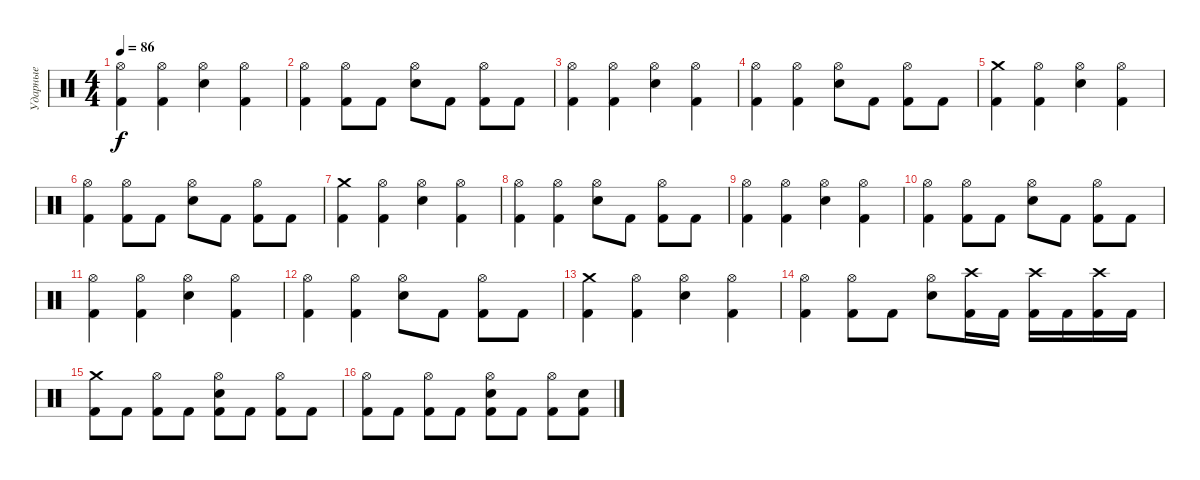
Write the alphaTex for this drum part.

\track ("Ударные" "Ударные") {instrument percussion}
\staff {score}
\articulation defaults
\ts (4 4)
\tempo 86
\clef neutral
\ks c
("Hi-Hat (open)" "Kick (hit) 2").4{dy f} ("Hi-Hat (open)" "Kick (hit) 2").4 ("Hi-Hat (open)" "Electric Snare (hit)").4 ("Hi-Hat (open)" "Kick (hit) 2").4 |
("Hi-Hat (open)" "Kick (hit) 2").4 ("Hi-Hat (open)" "Kick (hit) 2").8 "Kick (hit) 2".8 ("Hi-Hat (open)" "Electric Snare (hit)").8 "Kick (hit) 2".8 ("Hi-Hat (open)" "Kick (hit) 2").8 "Kick (hit) 2".8 |
("Hi-Hat (open)" "Kick (hit) 2").4 ("Hi-Hat (open)" "Kick (hit) 2").4 ("Hi-Hat (open)" "Electric Snare (hit)").4 ("Hi-Hat (open)" "Kick (hit) 2").4 |
("Hi-Hat (open)" "Kick (hit) 2").4 ("Hi-Hat (open)" "Kick (hit) 2").4 ("Hi-Hat (open)" "Electric Snare (hit)").8 "Kick (hit) 2".8 ("Hi-Hat (open)" "Kick (hit) 2").8 "Kick (hit) 2".8 |
("Crash medium (hit)" "Kick (hit) 2").4 ("Hi-Hat (open)" "Kick (hit) 2").4 ("Hi-Hat (open)" "Electric Snare (hit)").4 ("Hi-Hat (open)" "Kick (hit) 2").4 |
("Hi-Hat (open)" "Kick (hit) 2").4 ("Hi-Hat (open)" "Kick (hit) 2").8 "Kick (hit) 2".8 ("Hi-Hat (open)" "Electric Snare (hit)").8 "Kick (hit) 2".8 ("Hi-Hat (open)" "Kick (hit) 2").8 "Kick (hit) 2".8 |
("Crash medium (hit)" "Kick (hit) 2").4 ("Hi-Hat (open)" "Kick (hit) 2").4 ("Hi-Hat (open)" "Electric Snare (hit)").4 ("Hi-Hat (open)" "Kick (hit) 2").4 |
("Hi-Hat (open)" "Kick (hit) 2").4 ("Hi-Hat (open)" "Kick (hit) 2").4 ("Hi-Hat (open)" "Electric Snare (hit)").8 "Kick (hit) 2".8 ("Hi-Hat (open)" "Kick (hit) 2").8 "Kick (hit) 2".8 |
("Hi-Hat (open)" "Kick (hit) 2").4 ("Hi-Hat (open)" "Kick (hit) 2").4 ("Hi-Hat (open)" "Electric Snare (hit)").4 ("Hi-Hat (open)" "Kick (hit) 2").4 |
("Hi-Hat (open)" "Kick (hit) 2").4 ("Hi-Hat (open)" "Kick (hit) 2").8 "Kick (hit) 2".8 ("Hi-Hat (open)" "Electric Snare (hit)").8 "Kick (hit) 2".8 ("Hi-Hat (open)" "Kick (hit) 2").8 "Kick (hit) 2".8 |
("Hi-Hat (open)" "Kick (hit) 2").4 ("Hi-Hat (open)" "Kick (hit) 2").4 ("Hi-Hat (open)" "Electric Snare (hit)").4 ("Hi-Hat (open)" "Kick (hit) 2").4 |
("Hi-Hat (open)" "Kick (hit) 2").4 ("Hi-Hat (open)" "Kick (hit) 2").4 ("Hi-Hat (open)" "Electric Snare (hit)").8 "Kick (hit) 2".8 ("Hi-Hat (open)" "Kick (hit) 2").8 "Kick (hit) 2".8 |
("Crash medium (hit)" "Kick (hit) 2").4 ("Hi-Hat (open)" "Kick (hit) 2").4 ("Hi-Hat (open)" "Electric Snare (hit)").4 ("Hi-Hat (open)" "Kick (hit) 2").4 |
("Hi-Hat (open)" "Kick (hit) 2").4 ("Hi-Hat (open)" "Kick (hit) 2").8 "Kick (hit) 2".8 ("Hi-Hat (open)" "Electric Snare (hit)").8 ("Crash high (hit)" "Kick (hit) 2").16 "Kick (hit) 2".16 ("Crash high (hit)" "Kick (hit) 2").16 "Kick (hit) 2".16 ("Crash high (hit)" "Kick (hit) 2").16 "Kick (hit) 2".16 |
("Crash medium (hit)" "Kick (hit) 2").8 "Kick (hit) 2".8 ("Hi-Hat (open)" "Kick (hit) 2").8 "Kick (hit) 2".8 ("Hi-Hat (open)" "Electric Snare (hit)" "Kick (hit) 2").8 "Kick (hit) 2".8 ("Hi-Hat (open)" "Kick (hit) 2").8 "Kick (hit) 2".8 |
("Hi-Hat (open)" "Kick (hit) 2").8 "Kick (hit) 2".8 ("Hi-Hat (open)" "Kick (hit) 2").8 "Kick (hit) 2".8 ("Hi-Hat (open)" "Electric Snare (hit)" "Kick (hit) 2").8 "Kick (hit) 2".8 ("Hi-Hat (open)" "Kick (hit) 2").8 ("Electric Snare (hit)" "Kick (hit) 2").8
